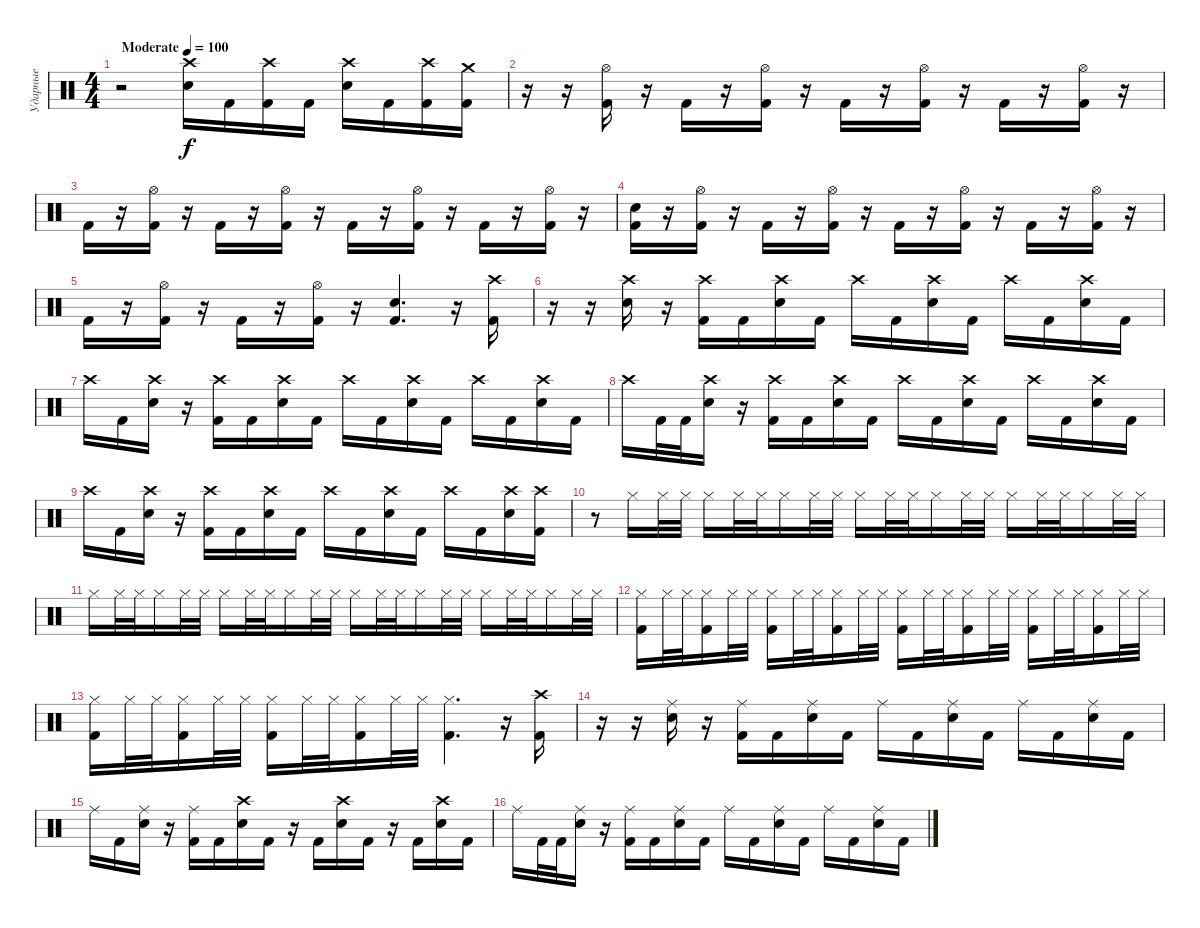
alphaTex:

\track ("Ударные" "Ударные") {instrument percussion}
\staff {score}
\articulation defaults
\ts (4 4)
\tempo (100 "Moderate")
\clef neutral
\ks c
r.2{dy f} ("Crash high (hit)" "Electric Snare (hit)").16 "Kick (hit) 2".16 ("Crash high (hit)" "Kick (hit) 2").16 "Kick (hit) 2".16 ("Crash high (hit)" "Electric Snare (hit)").16 "Kick (hit) 2".16 ("Crash high (hit)" "Kick (hit) 2").16 ("Crash medium (hit)" "Kick (hit) 2").16 |
r.16 r.16 ("Hi-Hat (open)" "Kick (hit) 2").16 r.16 "Kick (hit) 2".16 r.16 ("Hi-Hat (open)" "Kick (hit) 2").16 r.16 "Kick (hit) 2".16 r.16 ("Hi-Hat (open)" "Kick (hit) 2").16 r.16 "Kick (hit) 2".16 r.16 ("Hi-Hat (open)" "Kick (hit) 2").16 r.16 |
"Kick (hit) 2".16 r.16 ("Hi-Hat (open)" "Kick (hit) 2").16 r.16 "Kick (hit) 2".16 r.16 ("Hi-Hat (open)" "Kick (hit) 2").16 r.16 "Kick (hit) 2".16 r.16 ("Hi-Hat (open)" "Kick (hit) 2").16 r.16 "Kick (hit) 2".16 r.16 ("Hi-Hat (open)" "Kick (hit) 2").16 r.16 |
("Electric Snare (hit)" "Kick (hit) 2").16 r.16 ("Hi-Hat (open)" "Kick (hit) 2").16 r.16 "Kick (hit) 2".16 r.16 ("Hi-Hat (open)" "Kick (hit) 2").16 r.16 "Kick (hit) 2".16 r.16 ("Hi-Hat (open)" "Kick (hit) 2").16 r.16 "Kick (hit) 2".16 r.16 ("Hi-Hat (open)" "Kick (hit) 2").16 r.16 |
"Kick (hit) 2".16 r.16 ("Hi-Hat (open)" "Kick (hit) 2").16 r.16 "Kick (hit) 2".16 r.16 ("Hi-Hat (open)" "Kick (hit) 2").16 r.16 ("Electric Snare (hit)" "Kick (hit) 2").4{d} r.16 ("Crash high (hit)" "Kick (hit) 2").16 |
r.16 r.16 ("Crash high (hit)" "Electric Snare (hit)").16 r.16 ("Crash high (hit)" "Kick (hit) 2").16 "Kick (hit) 2".16 ("Crash high (hit)" "Electric Snare (hit)").16 "Kick (hit) 2".16 "Crash high (hit)".16 "Kick (hit) 2".16 ("Crash high (hit)" "Electric Snare (hit)").16 "Kick (hit) 2".16 "Crash high (hit)".16 "Kick (hit) 2".16 ("Crash high (hit)" "Electric Snare (hit)").16 "Kick (hit) 2".16 |
"Crash high (hit)".16 "Kick (hit) 2".16 ("Crash high (hit)" "Electric Snare (hit)").16 r.16 ("Crash high (hit)" "Kick (hit) 2").16 "Kick (hit) 2".16 ("Crash high (hit)" "Electric Snare (hit)").16 "Kick (hit) 2".16 "Crash high (hit)".16 "Kick (hit) 2".16 ("Crash high (hit)" "Electric Snare (hit)").16 "Kick (hit) 2".16 "Crash high (hit)".16 "Kick (hit) 2".16 ("Crash high (hit)" "Electric Snare (hit)").16 "Kick (hit) 2".16 |
"Crash high (hit)".16 "Kick (hit) 2".32 "Kick (hit) 2".32 ("Crash high (hit)" "Electric Snare (hit)").16 r.16 ("Crash high (hit)" "Kick (hit) 2").16 "Kick (hit) 2".16 ("Crash high (hit)" "Electric Snare (hit)").16 "Kick (hit) 2".16 "Crash high (hit)".16 "Kick (hit) 2".16 ("Crash high (hit)" "Electric Snare (hit)").16 "Kick (hit) 2".16 "Crash high (hit)".16 "Kick (hit) 2".16 ("Crash high (hit)" "Electric Snare (hit)").16 "Kick (hit) 2".16 |
"Crash high (hit)".16 "Kick (hit) 2".16 ("Crash high (hit)" "Electric Snare (hit)").16 r.16 ("Crash high (hit)" "Kick (hit) 2").16 "Kick (hit) 2".16 ("Crash high (hit)" "Electric Snare (hit)").16 "Kick (hit) 2".16 "Crash high (hit)".16 "Kick (hit) 2".16 ("Crash high (hit)" "Electric Snare (hit)").16 "Kick (hit) 2".16 "Crash high (hit)".16 "Kick (hit) 2".16 ("Crash high (hit)" "Electric Snare (hit)").16 ("Crash high (hit)" "Kick (hit) 2").16 |
r.8 "Hi-Hat (closed)".16 "Hi-Hat (closed)".32 "Hi-Hat (closed)".32 "Hi-Hat (closed)".16 "Hi-Hat (closed)".32 "Hi-Hat (closed)".32 "Hi-Hat (closed)".16 "Hi-Hat (closed)".32 "Hi-Hat (closed)".32 "Hi-Hat (closed)".16 "Hi-Hat (closed)".32 "Hi-Hat (closed)".32 "Hi-Hat (closed)".16 "Hi-Hat (closed)".32 "Hi-Hat (closed)".32 "Hi-Hat (closed)".16 "Hi-Hat (closed)".32 "Hi-Hat (closed)".32 "Hi-Hat (closed)".16 "Hi-Hat (closed)".32 "Hi-Hat (closed)".32 |
"Hi-Hat (closed)".16 "Hi-Hat (closed)".32 "Hi-Hat (closed)".32 "Hi-Hat (closed)".16 "Hi-Hat (closed)".32 "Hi-Hat (closed)".32 "Hi-Hat (closed)".16 "Hi-Hat (closed)".32 "Hi-Hat (closed)".32 "Hi-Hat (closed)".16 "Hi-Hat (closed)".32 "Hi-Hat (closed)".32 "Hi-Hat (closed)".16 "Hi-Hat (closed)".32 "Hi-Hat (closed)".32 "Hi-Hat (closed)".16 "Hi-Hat (closed)".32 "Hi-Hat (closed)".32 "Hi-Hat (closed)".16 "Hi-Hat (closed)".32 "Hi-Hat (closed)".32 "Hi-Hat (closed)".16 "Hi-Hat (closed)".32 "Hi-Hat (closed)".32 |
("Hi-Hat (closed)" "Kick (hit) 2").16 "Hi-Hat (closed)".32 "Hi-Hat (closed)".32 ("Hi-Hat (closed)" "Kick (hit) 2").16 "Hi-Hat (closed)".32 "Hi-Hat (closed)".32 ("Hi-Hat (closed)" "Kick (hit) 2").16 "Hi-Hat (closed)".32 "Hi-Hat (closed)".32 ("Hi-Hat (closed)" "Kick (hit) 2").16 "Hi-Hat (closed)".32 "Hi-Hat (closed)".32 ("Hi-Hat (closed)" "Kick (hit) 2").16 "Hi-Hat (closed)".32 "Hi-Hat (closed)".32 ("Hi-Hat (closed)" "Kick (hit) 2").16 "Hi-Hat (closed)".32 "Hi-Hat (closed)".32 ("Hi-Hat (closed)" "Kick (hit) 2").16 "Hi-Hat (closed)".32 "Hi-Hat (closed)".32 ("Hi-Hat (closed)" "Kick (hit) 2").16 "Hi-Hat (closed)".32 "Hi-Hat (closed)".32 |
("Hi-Hat (closed)" "Kick (hit) 2").16 "Hi-Hat (closed)".32 "Hi-Hat (closed)".32 ("Hi-Hat (closed)" "Kick (hit) 2").16 "Hi-Hat (closed)".32 "Hi-Hat (closed)".32 ("Hi-Hat (closed)" "Kick (hit) 2").16 "Hi-Hat (closed)".32 "Hi-Hat (closed)".32 ("Hi-Hat (closed)" "Kick (hit) 2").16 "Hi-Hat (closed)".32 "Hi-Hat (closed)".32 ("Hi-Hat (closed)" "Kick (hit) 2").4{d} r.16 ("Crash high (hit)" "Kick (hit) 2").16 |
r.16 r.16 ("Ride (middle)" "Electric Snare (hit)").16 r.16 ("Ride (middle)" "Kick (hit) 2").16 "Kick (hit) 2".16 ("Ride (middle)" "Electric Snare (hit)").16 "Kick (hit) 2".16 "Ride (middle)".16 "Kick (hit) 2".16 ("Ride (middle)" "Electric Snare (hit)").16 "Kick (hit) 2".16 "Ride (middle)".16 "Kick (hit) 2".16 ("Ride (middle)" "Electric Snare (hit)").16 "Kick (hit) 2".16 |
"Ride (middle)".16 "Kick (hit) 2".16 ("Ride (middle)" "Electric Snare (hit)").16 r.16 ("Ride (middle)" "Kick (hit) 2").16 "Kick (hit) 2".16 ("Crash high (hit)" "Electric Snare (hit)").16 "Kick (hit) 2".16 r.16 "Kick (hit) 2".16 ("Crash high (hit)" "Electric Snare (hit)").16 "Kick (hit) 2".16 r.16 "Kick (hit) 2".16 ("Crash high (hit)" "Electric Snare (hit)").16 "Kick (hit) 2".16 |
"Ride (middle)".16 "Kick (hit) 2".32 "Kick (hit) 2".32 ("Ride (middle)" "Electric Snare (hit)").16 r.16 ("Ride (middle)" "Kick (hit) 2").16 "Kick (hit) 2".16 ("Ride (middle)" "Electric Snare (hit)").16 "Kick (hit) 2".16 "Ride (middle)".16 "Kick (hit) 2".16 ("Ride (middle)" "Electric Snare (hit)").16 "Kick (hit) 2".16 "Ride (middle)".16 "Kick (hit) 2".16 ("Ride (middle)" "Electric Snare (hit)").16 "Kick (hit) 2".16
